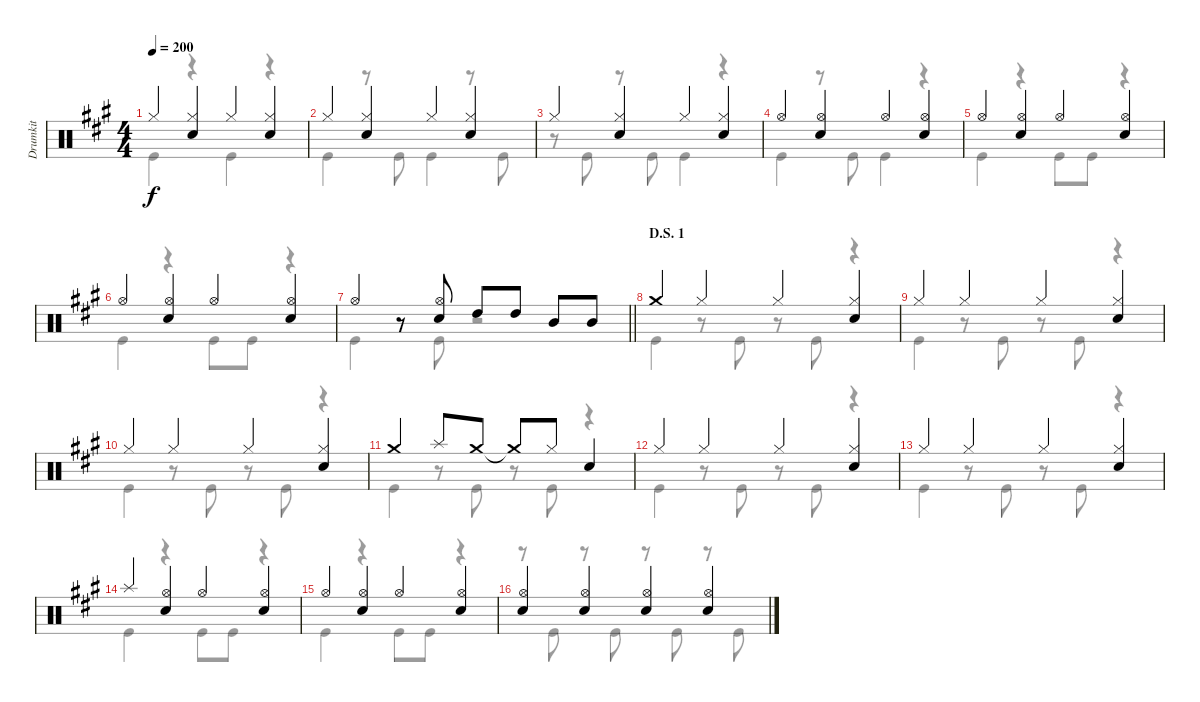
\track ("Drumkit" "Drumkit") {instrument percussion}
\staff {score}
\articulation defaults
\voice
\ts (4 4)
\tempo 200
\clef neutral
\ks a "Hi-Hat (closed)".4{dy f}
("Hi-Hat (closed)" "Snare (hit) 2").4 "Hi-Hat (closed)".4 ("Hi-Hat (closed)" "Snare (hit) 2").4 |
"Hi-Hat (closed)".4 ("Hi-Hat (closed)" "Snare (hit) 2").4 "Hi-Hat (closed)".4 ("Hi-Hat (closed)" "Snare (hit) 2").4 |
"Hi-Hat (closed)".4 ("Hi-Hat (closed)" "Snare (hit) 2").4 "Hi-Hat (closed)".4 ("Hi-Hat (closed)" "Snare (hit) 2").4 |
"Hi-Hat (open)".4 ("Hi-Hat (open)" "Snare (hit) 2").4 "Hi-Hat (open)".4 ("Hi-Hat (open)" "Snare (hit) 2").4 |
"Hi-Hat (open)".4 ("Hi-Hat (open)" "Snare (hit) 2").4 "Hi-Hat (open)".4 ("Hi-Hat (open)" "Snare (hit) 2").4 |
"Hi-Hat (open)".4 ("Hi-Hat (open)" "Snare (hit) 2").4 "Hi-Hat (open)".4 ("Hi-Hat (open)" "Snare (hit) 2").4 |
\barLineRight lightlight "Hi-Hat (open)".4
r.8 ("Snare (hit) 2" "Hi-Hat (open)").8 "High Tom (hit)".8 "High Tom (hit)".8 "Mid Tom (hit)".8 "Mid Tom (hit)".8 |
\section ("" "D.S. 1")
"Crash medium (hit)".4 "Hi-Hat (closed)".4 "Hi-Hat (closed)".4 ("Hi-Hat (closed)" "Snare (hit) 2").4 |
"Hi-Hat (closed)".4 "Hi-Hat (closed)".4 "Hi-Hat (closed)".4 ("Hi-Hat (closed)" "Snare (hit) 2").4 |
"Hi-Hat (closed)".4 "Hi-Hat (closed)".4 "Hi-Hat (closed)".4 ("Hi-Hat (closed)" "Snare (hit) 2").4 |
"Crash medium (hit)".4 "Splash (hit)".8 "Crash medium (hit)".8 "Crash medium (hit)"{t}.8 "Hi-Hat (closed)".8 "Snare (hit) 2".4 |
"Hi-Hat (closed)".4 "Hi-Hat (closed)".4 "Hi-Hat (closed)".4 ("Hi-Hat (closed)" "Snare (hit) 2").4 |
"Hi-Hat (closed)".4 "Hi-Hat (closed)".4 "Hi-Hat (closed)".4 ("Hi-Hat (closed)" "Snare (hit) 2").4 |
"Splash (hit)".4 ("Hi-Hat (open)" "Snare (hit) 2").4 "Hi-Hat (open)".4 ("Hi-Hat (open)" "Snare (hit) 2").4 |
"Hi-Hat (open)".4 ("Hi-Hat (open)" "Snare (hit) 2").4 "Hi-Hat (open)".4 ("Hi-Hat (open)" "Snare (hit) 2").4 |
("Snare (hit) 2" "Hi-Hat (open)").4 ("Snare (hit) 2" "Hi-Hat (open)").4 ("Snare (hit) 2" "Hi-Hat (open)").4 ("Snare (hit) 2" "Hi-Hat (open)").4
\voice
\clef neutral
\ottava regular
\simile none
\ks a "Kick (hit)".4{dy f}
r.4 "Kick (hit)".4 r.4 |
"Kick (hit)".4 r.8 "Kick (hit)".8 "Kick (hit)".4 r.8 "Kick (hit)".8 |
r.8 "Kick (hit)".8 r.8 "Kick (hit)".8 "Kick (hit)".4 r.4 |
"Kick (hit)".4 r.8 "Kick (hit)".8 "Kick (hit)".4 r.4 |
"Kick (hit)".4 r.4 "Kick (hit)".8 "Kick (hit)".8 r.4 |
"Kick (hit)".4 r.4 "Kick (hit)".8 "Kick (hit)".8 r.4 |
\barLineRight lightlight "Kick (hit)".4
r.8 "Kick (hit)".8 r.2 |
"Kick (hit)".4 r.8 "Kick (hit)".8 r.8 "Kick (hit)".8 r.4 |
"Kick (hit)".4 r.8 "Kick (hit)".8 r.8 "Kick (hit)".8 r.4 |
"Kick (hit)".4 r.8 "Kick (hit)".8 r.8 "Kick (hit)".8 r.4 |
"Kick (hit)".4 r.8 "Kick (hit)".8 r.8 "Kick (hit)".8 r.4 |
"Kick (hit)".4 r.8 "Kick (hit)".8 r.8 "Kick (hit)".8 r.4 |
"Kick (hit)".4 r.8 "Kick (hit)".8 r.8 "Kick (hit)".8 r.4 |
"Kick (hit)".4 r.4 "Kick (hit)".8 "Kick (hit)".8 r.4 |
"Kick (hit)".4 r.4 "Kick (hit)".8 "Kick (hit)".8 r.4 |
r.8 "Kick (hit)".8 r.8 "Kick (hit)".8 r.8 "Kick (hit)".8 r.8 "Kick (hit)".8
